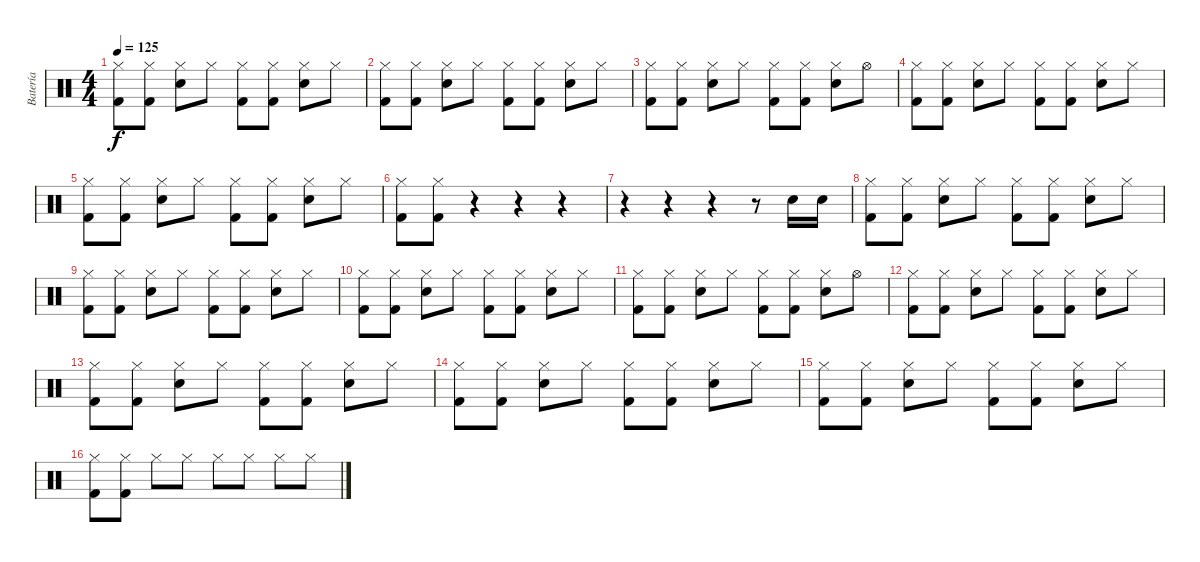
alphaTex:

\track ("Batería" "Batería") {instrument percussion}
\staff {score}
\articulation defaults
\ts (4 4)
\tempo 125
\clef neutral
\ks c
("Hi-Hat (closed)" "Kick (hit) 2").8{dy f} ("Hi-Hat (closed)" "Kick (hit) 2").8 ("Hi-Hat (closed)" "Snare (hit) 2").8 "Hi-Hat (closed)".8 ("Hi-Hat (closed)" "Kick (hit) 2").8 ("Hi-Hat (closed)" "Kick (hit) 2").8 ("Hi-Hat (closed)" "Snare (hit) 2").8 "Hi-Hat (closed)".8 |
("Hi-Hat (closed)" "Kick (hit) 2").8 ("Hi-Hat (closed)" "Kick (hit) 2").8 ("Hi-Hat (closed)" "Snare (hit) 2").8 "Hi-Hat (closed)".8 ("Hi-Hat (closed)" "Kick (hit) 2").8 ("Hi-Hat (closed)" "Kick (hit) 2").8 ("Hi-Hat (closed)" "Snare (hit) 2").8 "Hi-Hat (closed)".8 |
("Hi-Hat (closed)" "Kick (hit) 2").8 ("Hi-Hat (closed)" "Kick (hit) 2").8 ("Hi-Hat (closed)" "Snare (hit) 2").8 "Hi-Hat (closed)".8 ("Hi-Hat (closed)" "Kick (hit) 2").8 ("Hi-Hat (closed)" "Kick (hit) 2").8 ("Hi-Hat (closed)" "Snare (hit) 2").8 "Hi-Hat (open)".8 |
("Hi-Hat (closed)" "Kick (hit) 2").8 ("Hi-Hat (closed)" "Kick (hit) 2").8 ("Hi-Hat (closed)" "Snare (hit) 2").8 "Hi-Hat (closed)".8 ("Hi-Hat (closed)" "Kick (hit) 2").8 ("Hi-Hat (closed)" "Kick (hit) 2").8 ("Hi-Hat (closed)" "Snare (hit) 2").8 "Hi-Hat (closed)".8 |
("Hi-Hat (closed)" "Kick (hit) 2").8 ("Hi-Hat (closed)" "Kick (hit) 2").8 ("Hi-Hat (closed)" "Snare (hit) 2").8 "Hi-Hat (closed)".8 ("Hi-Hat (closed)" "Kick (hit) 2").8 ("Hi-Hat (closed)" "Kick (hit) 2").8 ("Hi-Hat (closed)" "Snare (hit) 2").8 "Hi-Hat (closed)".8 |
("Hi-Hat (closed)" "Kick (hit) 2").8 ("Hi-Hat (closed)" "Kick (hit) 2").8 r.4 r.4 r.4 |
r.4 r.4 r.4 r.8 "Snare (hit) 2".16 "Snare (hit) 2".16 |
("Hi-Hat (closed)" "Kick (hit) 2").8 ("Hi-Hat (closed)" "Kick (hit) 2").8 ("Hi-Hat (closed)" "Snare (hit) 2").8 "Hi-Hat (closed)".8 ("Hi-Hat (closed)" "Kick (hit) 2").8 ("Hi-Hat (closed)" "Kick (hit) 2").8 ("Hi-Hat (closed)" "Snare (hit) 2").8 "Hi-Hat (closed)".8 |
("Hi-Hat (closed)" "Kick (hit) 2").8 ("Hi-Hat (closed)" "Kick (hit) 2").8 ("Hi-Hat (closed)" "Snare (hit) 2").8 "Hi-Hat (closed)".8 ("Hi-Hat (closed)" "Kick (hit) 2").8 ("Hi-Hat (closed)" "Kick (hit) 2").8 ("Hi-Hat (closed)" "Snare (hit) 2").8 "Hi-Hat (closed)".8 |
("Hi-Hat (closed)" "Kick (hit) 2").8 ("Hi-Hat (closed)" "Kick (hit) 2").8 ("Hi-Hat (closed)" "Snare (hit) 2").8 "Hi-Hat (closed)".8 ("Hi-Hat (closed)" "Kick (hit) 2").8 ("Hi-Hat (closed)" "Kick (hit) 2").8 ("Hi-Hat (closed)" "Snare (hit) 2").8 "Hi-Hat (closed)".8 |
("Hi-Hat (closed)" "Kick (hit) 2").8 ("Hi-Hat (closed)" "Kick (hit) 2").8 ("Hi-Hat (closed)" "Snare (hit) 2").8 "Hi-Hat (closed)".8 ("Hi-Hat (closed)" "Kick (hit) 2").8 ("Hi-Hat (closed)" "Kick (hit) 2").8 ("Hi-Hat (closed)" "Snare (hit) 2").8 "Hi-Hat (open)".8 |
("Hi-Hat (closed)" "Kick (hit) 2").8 ("Hi-Hat (closed)" "Kick (hit) 2").8 ("Hi-Hat (closed)" "Snare (hit) 2").8 "Hi-Hat (closed)".8 ("Hi-Hat (closed)" "Kick (hit) 2").8 ("Hi-Hat (closed)" "Kick (hit) 2").8 ("Hi-Hat (closed)" "Snare (hit) 2").8 "Hi-Hat (closed)".8 |
("Hi-Hat (closed)" "Kick (hit) 2").8 ("Hi-Hat (closed)" "Kick (hit) 2").8 ("Hi-Hat (closed)" "Snare (hit) 2").8 "Hi-Hat (closed)".8 ("Hi-Hat (closed)" "Kick (hit) 2").8 ("Hi-Hat (closed)" "Kick (hit) 2").8 ("Hi-Hat (closed)" "Snare (hit) 2").8 "Hi-Hat (closed)".8 |
("Hi-Hat (closed)" "Kick (hit) 2").8 ("Hi-Hat (closed)" "Kick (hit) 2").8 ("Hi-Hat (closed)" "Snare (hit) 2").8 "Hi-Hat (closed)".8 ("Hi-Hat (closed)" "Kick (hit) 2").8 ("Hi-Hat (closed)" "Kick (hit) 2").8 ("Hi-Hat (closed)" "Snare (hit) 2").8 "Hi-Hat (closed)".8 |
("Hi-Hat (closed)" "Kick (hit) 2").8 ("Hi-Hat (closed)" "Kick (hit) 2").8 ("Hi-Hat (closed)" "Snare (hit) 2").8 "Hi-Hat (closed)".8 ("Hi-Hat (closed)" "Kick (hit) 2").8 ("Hi-Hat (closed)" "Kick (hit) 2").8 ("Hi-Hat (closed)" "Snare (hit) 2").8 "Hi-Hat (closed)".8 |
("Hi-Hat (closed)" "Kick (hit) 2").8 ("Hi-Hat (closed)" "Kick (hit) 2").8 "Hi-Hat (closed)".8 "Hi-Hat (closed)".8 "Hi-Hat (closed)".8 "Hi-Hat (closed)".8 "Hi-Hat (closed)".8 "Hi-Hat (closed)".8
